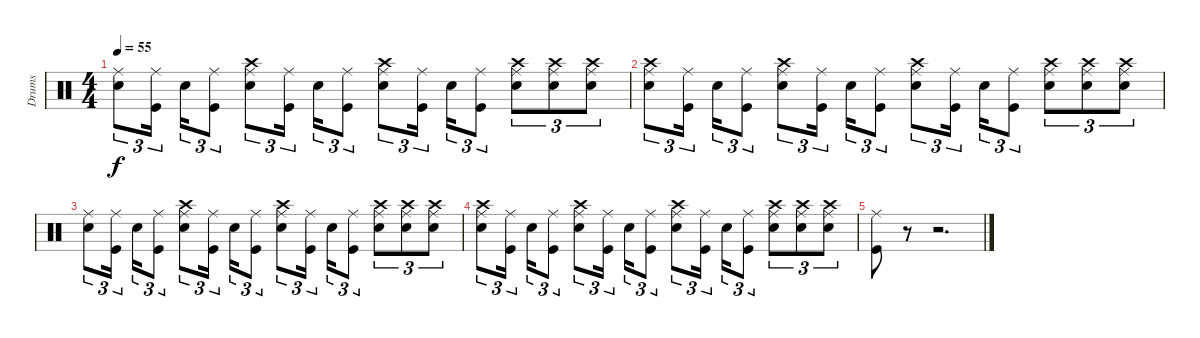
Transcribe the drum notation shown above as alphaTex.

\track ("Drums" "Drums") {instrument percussion}
\staff {score}
\articulation defaults
\ts (4 4)
\tempo 55
\clef neutral
\ks c
("Ride (middle)" "Snare (hit) 2").8{tu (3 2) dy f} ("Ride (middle)" "Kick (hit)").16{tu (3 2)} "Snare (hit) 2".16{tu (3 2)} ("Ride (middle)" "Kick (hit)").8{tu (3 2)} ("Ride (middle)" "Crash high (hit)" "Snare (hit) 2").8{tu (3 2)} ("Ride (middle)" "Kick (hit)").16{tu (3 2)} "Snare (hit) 2".16{tu (3 2)} ("Ride (middle)" "Kick (hit)").8{tu (3 2)} ("Ride (middle)" "Crash high (hit)" "Snare (hit) 2").8{tu (3 2)} ("Ride (middle)" "Kick (hit)").16{tu (3 2)} "Snare (hit) 2".16{tu (3 2)} ("Ride (middle)" "Kick (hit)").8{tu (3 2)} ("Ride (middle)" "Crash high (hit)" "Snare (hit) 2").8{tu (3 2)} ("Ride (middle)" "Crash high (hit)" "Snare (hit) 2").8{tu (3 2)} ("Ride (middle)" "Crash high (hit)" "Snare (hit) 2").8{tu (3 2)} |
("Ride (middle)" "Crash high (hit)" "Snare (hit) 2").8{tu (3 2)} ("Ride (middle)" "Kick (hit)").16{tu (3 2)} "Snare (hit) 2".16{tu (3 2)} ("Ride (middle)" "Kick (hit)").8{tu (3 2)} ("Ride (middle)" "Crash high (hit)" "Snare (hit) 2").8{tu (3 2)} ("Ride (middle)" "Kick (hit)").16{tu (3 2)} "Snare (hit) 2".16{tu (3 2)} ("Ride (middle)" "Kick (hit)").8{tu (3 2)} ("Ride (middle)" "Crash high (hit)" "Snare (hit) 2").8{tu (3 2)} ("Ride (middle)" "Kick (hit)").16{tu (3 2)} "Snare (hit) 2".16{tu (3 2)} ("Ride (middle)" "Kick (hit)").8{tu (3 2)} ("Ride (middle)" "Crash high (hit)" "Snare (hit) 2").8{tu (3 2)} ("Ride (middle)" "Crash high (hit)" "Snare (hit) 2").8{tu (3 2)} ("Ride (middle)" "Crash high (hit)" "Snare (hit) 2").8{tu (3 2)} |
("Ride (middle)" "Snare (hit) 2").8{tu (3 2)} ("Ride (middle)" "Kick (hit)").16{tu (3 2)} "Snare (hit) 2".16{tu (3 2)} ("Ride (middle)" "Kick (hit)").8{tu (3 2)} ("Ride (middle)" "Crash high (hit)" "Snare (hit) 2").8{tu (3 2)} ("Ride (middle)" "Kick (hit)").16{tu (3 2)} "Snare (hit) 2".16{tu (3 2)} ("Ride (middle)" "Kick (hit)").8{tu (3 2)} ("Ride (middle)" "Crash high (hit)" "Snare (hit) 2").8{tu (3 2)} ("Ride (middle)" "Kick (hit)").16{tu (3 2)} "Snare (hit) 2".16{tu (3 2)} ("Ride (middle)" "Kick (hit)").8{tu (3 2)} ("Ride (middle)" "Crash high (hit)" "Snare (hit) 2").8{tu (3 2)} ("Ride (middle)" "Crash high (hit)" "Snare (hit) 2").8{tu (3 2)} ("Ride (middle)" "Crash high (hit)" "Snare (hit) 2").8{tu (3 2)} |
("Ride (middle)" "Crash high (hit)" "Snare (hit) 2").8{tu (3 2)} ("Ride (middle)" "Kick (hit)").16{tu (3 2)} "Snare (hit) 2".16{tu (3 2)} ("Ride (middle)" "Kick (hit)").8{tu (3 2)} ("Ride (middle)" "Crash high (hit)" "Snare (hit) 2").8{tu (3 2)} ("Ride (middle)" "Kick (hit)").16{tu (3 2)} "Snare (hit) 2".16{tu (3 2)} ("Ride (middle)" "Kick (hit)").8{tu (3 2)} ("Ride (middle)" "Crash high (hit)" "Snare (hit) 2").8{tu (3 2)} ("Ride (middle)" "Kick (hit)").16{tu (3 2)} "Snare (hit) 2".16{tu (3 2)} ("Ride (middle)" "Kick (hit)").8{tu (3 2)} ("Ride (middle)" "Crash high (hit)" "Snare (hit) 2").8{tu (3 2)} ("Ride (middle)" "Crash high (hit)" "Snare (hit) 2").8{tu (3 2)} ("Ride (middle)" "Crash high (hit)" "Snare (hit) 2").8{tu (3 2)} |
("Ride (middle)" "Kick (hit)").8 r.8 r.2{d}
